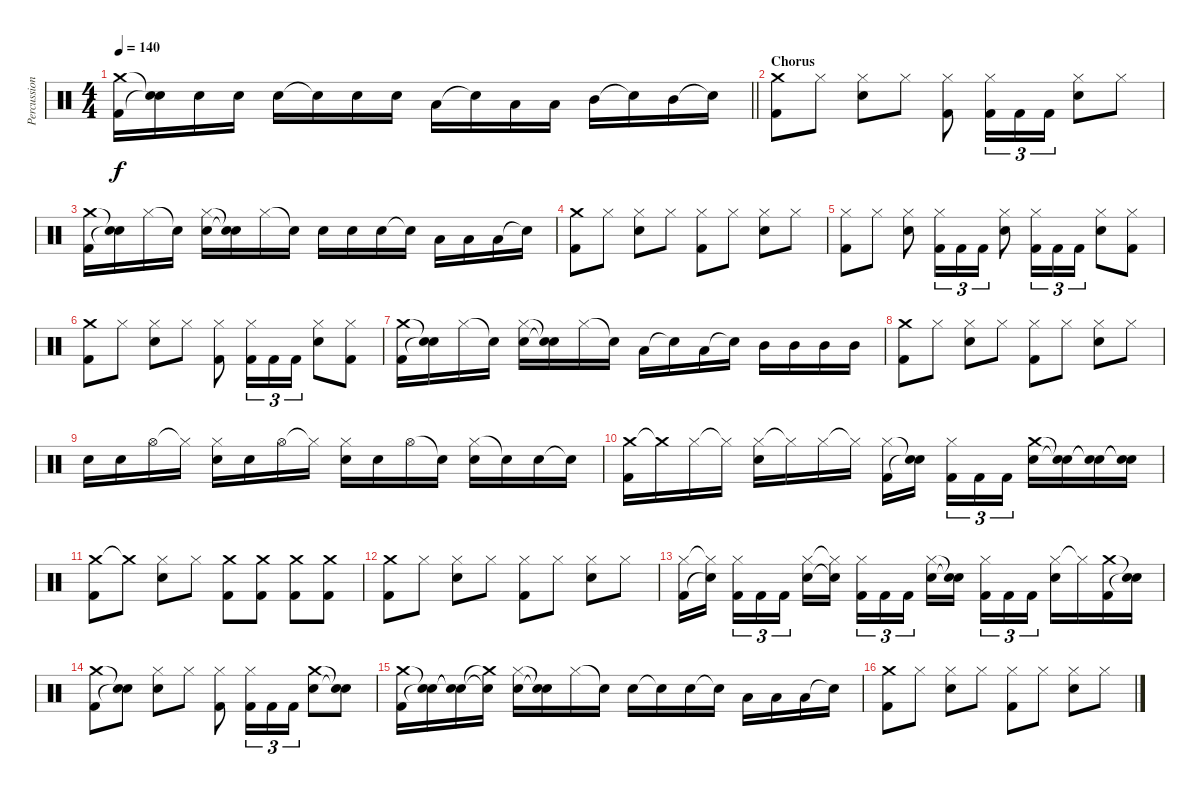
\track ("Percussion" "Percussion") {instrument percussion}
\staff {score}
\articulation defaults
\ts (4 4)
\tempo 140
\clef neutral
\barLineRight lightlight
\ks c
("Crash medium (hit)" "Kick (hit) 2").16{dy f} ("Snare (hit)"{t} "Snare (hit)"{t}).16 "Snare (hit) 2".16 "Snare (hit) 2".16 "Snare (hit) 2".16 "Snare (hit)"{t}.16 "Snare (hit) 2".16 "Snare (hit) 2".16 "Low Tom (hit)".16 "Snare (hit)"{t}.16 "Low Tom (hit)".16 "Low Tom (hit)".16 "Mid Tom (hit)".16 "Snare (hit)"{t}.16 "Mid Tom (hit)".16 "Snare (hit)"{t}.16 |
\section ("" "Chorus")
("Crash medium (hit)" "Kick (hit) 2").8 "Hi-Hat (closed)".8 ("Hi-Hat (closed)" "Snare (hit) 2").8 "Hi-Hat (closed)".8 ("Hi-Hat (closed)" "Kick (hit) 2").8 ("Hi-Hat (closed)" "Kick (hit) 2").16{tu (3 2)} "Kick (hit) 2".16{tu (3 2)} "Kick (hit) 2".16{tu (3 2)} ("Hi-Hat (closed)" "Snare (hit) 2").8 "Hi-Hat (closed)".8 |
("Crash medium (hit)" "Kick (hit) 2").16 ("Snare (hit)"{t} "Snare (hit)"{t}).16 "Hi-Hat (closed)".16 "Snare (hit)"{t}.16 ("Hi-Hat (closed)" "Snare (hit) 2").16 ("Snare (hit)"{t} "Snare (hit)"{t}).16 "Hi-Hat (closed)".16 "Snare (hit)"{t}.16 "Snare (hit) 2".16 "Snare (hit) 2".16 "Snare (hit) 2".16 "Snare (hit)"{t}.16 "Low Tom (hit)".16 "Low Tom (hit)".16 "Low Tom (hit)".16 "Snare (hit)"{t}.16 |
("Crash medium (hit)" "Kick (hit) 2").8 "Hi-Hat (closed)".8 ("Hi-Hat (closed)" "Snare (hit) 2").8 "Hi-Hat (closed)".8 ("Hi-Hat (closed)" "Kick (hit) 2").8 "Hi-Hat (closed)".8 ("Hi-Hat (closed)" "Snare (hit) 2").8 "Hi-Hat (closed)".8 |
("Hi-Hat (closed)" "Kick (hit) 2").8 "Hi-Hat (closed)".8 ("Hi-Hat (closed)" "Snare (hit) 2").8 ("Hi-Hat (closed)" "Kick (hit) 2").16{tu (3 2)} "Kick (hit) 2".16{tu (3 2)} "Kick (hit) 2".16{tu (3 2)} ("Hi-Hat (closed)" "Snare (hit) 2").8 ("Hi-Hat (closed)" "Kick (hit) 2").16{tu (3 2)} "Kick (hit) 2".16{tu (3 2)} "Kick (hit) 2".16{tu (3 2)} ("Hi-Hat (closed)" "Snare (hit) 2").8 ("Hi-Hat (closed)" "Kick (hit) 2").8 |
("Crash medium (hit)" "Kick (hit) 2").8 "Hi-Hat (closed)".8 ("Hi-Hat (closed)" "Snare (hit) 2").8 "Hi-Hat (closed)".8 ("Hi-Hat (closed)" "Kick (hit) 2").8 ("Hi-Hat (closed)" "Kick (hit) 2").16{tu (3 2)} "Kick (hit) 2".16{tu (3 2)} "Kick (hit) 2".16{tu (3 2)} ("Hi-Hat (closed)" "Snare (hit) 2").8 ("Hi-Hat (closed)" "Kick (hit) 2").8 |
("Crash medium (hit)" "Kick (hit) 2").16 ("Snare (hit)"{t} "Snare (hit)"{t}).16 "Hi-Hat (closed)".16 "Snare (hit)"{t}.16 ("Hi-Hat (closed)" "Snare (hit) 2").16 ("Snare (hit)"{t} "Snare (hit)"{t}).16 "Hi-Hat (closed)".16 "Snare (hit)"{t}.16 "Low Tom (hit)".16 "Snare (hit)"{t}.16 "Low Tom (hit)".16 "Snare (hit)"{t}.16 "Mid Tom (hit)".16 "Mid Tom (hit)".16 "Mid Tom (hit)".16 "Mid Tom (hit)".16 |
("Crash medium (hit)" "Kick (hit) 2").8 "Hi-Hat (closed)".8 ("Hi-Hat (closed)" "Snare (hit) 2").8 "Hi-Hat (closed)".8 ("Hi-Hat (closed)" "Kick (hit) 2").8 "Hi-Hat (closed)".8 ("Hi-Hat (closed)" "Snare (hit) 2").8 "Hi-Hat (closed)".8 |
"Snare (hit) 2".16 "Snare (hit) 2".16 "Hi-Hat (open)".16 "Hi-Hat (closed)"{t}.16 ("Hi-Hat (closed)" "Snare (hit) 2").16 "Snare (hit) 2".16 "Hi-Hat (open)".16 "Hi-Hat (closed)"{t}.16 ("Hi-Hat (closed)" "Snare (hit) 2").16 "Snare (hit) 2".16 "Hi-Hat (open)".16 "Snare (hit)"{t}.16 ("Hi-Hat (closed)" "Snare (hit) 2").16 "Snare (hit) 2"{t}.16 "Snare (hit) 2".16 "Snare (hit)"{t}.16 |
("Crash medium (hit)" "Kick (hit) 2").16 "Crash medium (hit)"{t}.16 "Hi-Hat (closed)".16 "Hi-Hat (closed)"{t}.16 ("Hi-Hat (closed)" "Snare (hit) 2").16 "Hi-Hat (closed)"{t}.16 "Hi-Hat (closed)".16 "Hi-Hat (closed)"{t}.16 ("Hi-Hat (closed)" "Kick (hit) 2").16 ("Snare (hit)"{t} "Snare (hit)"{t}).16{beam splitsecondary} ("Hi-Hat (closed)" "Kick (hit) 2").16{tu (3 2)} "Kick (hit) 2".16{tu (3 2)} "Kick (hit) 2".16{tu (3 2)} ("Crash medium (hit)" "Snare (hit) 2").16 ("Snare (hit)"{t} "Snare (hit)"{t}).16 ("Snare (hit)"{t} "Snare (hit)"{t}).16 ("Snare (hit)"{t} "Snare (hit)"{t}).16 |
("Crash medium (hit)" "Kick (hit) 2").8 "Crash medium (hit)"{t}.8 ("Hi-Hat (closed)" "Snare (hit) 2").8 "Hi-Hat (closed)".8 ("Crash medium (hit)" "Kick (hit) 2").8 ("Crash medium (hit)" "Kick (hit) 2").8 ("Crash medium (hit)" "Kick (hit) 2").8 ("Crash medium (hit)" "Kick (hit) 2").8 |
("Crash medium (hit)" "Kick (hit) 2").8 "Hi-Hat (closed)".8 ("Hi-Hat (closed)" "Snare (hit) 2").8 "Hi-Hat (closed)".8 ("Hi-Hat (closed)" "Kick (hit) 2").8 "Hi-Hat (closed)".8 ("Hi-Hat (closed)" "Snare (hit) 2").8 "Hi-Hat (closed)".8 |
("Hi-Hat (closed)" "Kick (hit) 2").16 ("Hi-Hat (closed)"{t} "Snare (hit)"{t}).16{beam splitsecondary} ("Hi-Hat (closed)" "Kick (hit) 2").16{tu (3 2)} "Kick (hit) 2".16{tu (3 2)} "Kick (hit) 2".16{tu (3 2)} ("Hi-Hat (closed)" "Snare (hit) 2").16 ("Hi-Hat (closed)"{t} "Snare (hit) 2"{t}).16{beam splitsecondary} ("Hi-Hat (closed)" "Kick (hit) 2").16{tu (3 2)} "Kick (hit) 2".16{tu (3 2)} "Kick (hit) 2".16{tu (3 2)} ("Hi-Hat (closed)" "Snare (hit) 2").16 ("Snare (hit)"{t} "Snare (hit)"{t}).16{beam splitsecondary} ("Hi-Hat (closed)" "Kick (hit) 2").16{tu (3 2)} "Kick (hit) 2".16{tu (3 2)} "Kick (hit) 2".16{tu (3 2)} ("Hi-Hat (closed)" "Snare (hit) 2").16 "Hi-Hat (closed)"{t}.16 ("Crash medium (hit)" "Kick (hit) 2").16 ("Snare (hit)"{t} "Snare (hit)"{t}).16 |
("Crash medium (hit)" "Kick (hit) 2").8 ("Snare (hit)"{t} "Snare (hit)"{t}).8 ("Hi-Hat (closed)" "Snare (hit) 2").8 "Hi-Hat (closed)".8 ("Hi-Hat (closed)" "Kick (hit) 2").8 ("Hi-Hat (closed)" "Kick (hit) 2").16{tu (3 2)} "Kick (hit) 2".16{tu (3 2)} "Kick (hit) 2".16{tu (3 2)} ("Crash medium (hit)" "Snare (hit) 2").8 ("Snare (hit)"{t} "Snare (hit)"{t}).8 |
("Crash medium (hit)" "Kick (hit) 2").16 ("Snare (hit)"{t} "Snare (hit)"{t}).16 ("Snare (hit)"{t} "Snare (hit)"{t}).16 ("Crash medium (hit)"{t} "Snare (hit)"{t}).16 ("Hi-Hat (closed)" "Snare (hit) 2").16 ("Snare (hit)"{t} "Snare (hit)"{t}).16 "Hi-Hat (closed)".16 "Snare (hit)"{t}.16 "Snare (hit) 2".16 "Snare (hit)"{t}.16 "Snare (hit) 2".16 "Snare (hit) 2"{t}.16 "Low Tom (hit)".16 "Low Tom (hit)".16 "Low Tom (hit)".16 "Snare (hit)"{t}.16 |
("Crash medium (hit)" "Kick (hit) 2").8 "Hi-Hat (closed)".8 ("Hi-Hat (closed)" "Snare (hit) 2").8 "Hi-Hat (closed)".8 ("Hi-Hat (closed)" "Kick (hit) 2").8 "Hi-Hat (closed)".8 ("Hi-Hat (closed)" "Snare (hit) 2").8 "Hi-Hat (closed)".8
